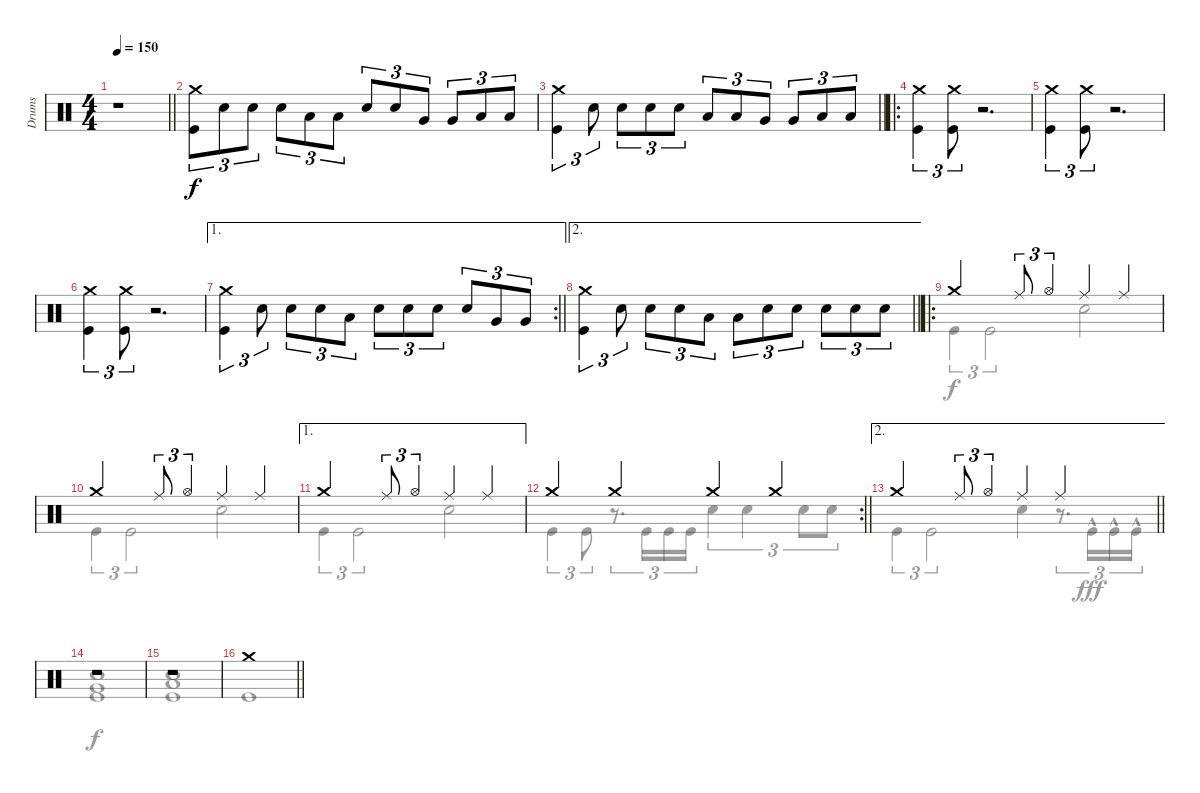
\track ("Drums" "Drums") {instrument percussion}
\staff {score}
\articulation defaults
\voice
\ts (4 4)
\tempo 150
\clef neutral
\barLineRight lightlight
\ks c
r.1{dy f} |
\section ("" "")
("Crash medium (hit)" "Kick (hit)").8{tu (3 2)} "Electric Snare (hit)".8{tu (3 2)} "Electric Snare (hit)".8{tu (3 2)} "Electric Snare (hit)".8{tu (3 2)} "Low Tom (hit)".8{tu (3 2)} "Low Tom (hit)".8{tu (3 2)} "Electric Snare (hit)".8{tu (3 2)} "Electric Snare (hit)".8{tu (3 2)} "Very Low Tom (hit)".8{tu (3 2)} "Very Low Tom (hit)".8{tu (3 2)} "Low Floor Tom (hit)".8{tu (3 2)} "Low Floor Tom (hit)".8{tu (3 2)} |
\barLineRight lightlight
("Crash medium (hit)" "Kick (hit)").4{tu (3 2)} "Electric Snare (hit)".8{tu (3 2)} "Electric Snare (hit)".8{tu (3 2)} "Electric Snare (hit)".8{tu (3 2)} "Electric Snare (hit)".8{tu (3 2)} "Low Tom (hit)".8{tu (3 2)} "Low Tom (hit)".8{tu (3 2)} "Very Low Tom (hit)".8{tu (3 2)} "Very Low Tom (hit)".8{tu (3 2)} "Low Floor Tom (hit)".8{tu (3 2)} "Low Floor Tom (hit)".8{tu (3 2)} |
\ro
\section ("" "")
("Crash medium (hit)" "Kick (hit)").4{tu (3 2)} ("Crash medium (hit)" "Kick (hit)").8{tu (3 2)} r.2{d} |
("Crash medium (hit)" "Kick (hit)").4{tu (3 2)} ("Crash medium (hit)" "Kick (hit)").8{tu (3 2)} r.2{d} |
("Crash medium (hit)" "Kick (hit)").4{tu (3 2)} ("Crash medium (hit)" "Kick (hit)").8{tu (3 2)} r.2{d} |
\ae 1
\rc 2
\barLineRight lightlight
("Crash medium (hit)" "Kick (hit)").4{tu (3 2)} "Electric Snare (hit)".8{tu (3 2)} "Electric Snare (hit)".8{tu (3 2)} "Electric Snare (hit)".8{tu (3 2)} "Low Tom (hit)".8{tu (3 2)} "Electric Snare (hit)".8{tu (3 2)} "Electric Snare (hit)".8{tu (3 2)} "Electric Snare (hit)".8{tu (3 2)} "Electric Snare (hit)".8{tu (3 2)} "Very Low Tom (hit)".8{tu (3 2)} "Very Low Tom (hit)".8{tu (3 2)} |
\ae 2
\barLineRight lightlight
("Crash medium (hit)" "Kick (hit)").4{tu (3 2)} "Electric Snare (hit)".8{tu (3 2)} "Electric Snare (hit)".8{tu (3 2)} "Electric Snare (hit)".8{tu (3 2)} "Low Tom (hit)".8{tu (3 2)} "Low Tom (hit)".8{tu (3 2)} "Electric Snare (hit)".8{tu (3 2)} "Electric Snare (hit)".8{tu (3 2)} "Electric Snare (hit)".8{tu (3 2)} "Electric Snare (hit)".8{tu (3 2)} "Electric Snare (hit)".8{tu (3 2)} |
\ro "Crash medium (hit)".4 "Ride (middle)".8{tu (3 2)} "Hi-Hat (open)".4{tu (3 2)} "Ride (middle)".4 "Ride (middle)".4
|
"Crash medium (hit)".4 "Ride (middle)".8{tu (3 2)} "Hi-Hat (open)".4{tu (3 2)} "Ride (middle)".4 "Ride (middle)".4 |
\ae 1 "Crash medium (hit)".4 "Ride (middle)".8{tu (3 2)} "Hi-Hat (open)".4{tu (3 2)} "Ride (middle)".4 "Ride (middle)".4
|
\rc 2
\barLineRight lightlight "Crash medium (hit)".4 "Crash medium (hit)".4 "Crash medium (hit)".4 "Crash medium (hit)".4
|
\ae 2
\barLineRight lightlight "Crash medium (hit)".4 "Ride (middle)".8{tu (3 2)} "Hi-Hat (open)".4{tu (3 2)} "Ride (middle)".4 "Ride (middle)".4
|
\section ("" "")
r.1 |
r.1 |
\barLineRight lightlight "Crash medium (hit)".1{volume 0}
\voice
\clef neutral
\ottava regular
\simile none
\barLineRight lightlight
\ks c
|
|
\barLineRight lightlight
|
|
|
|
\barLineRight lightlight
|
\barLineRight lightlight
|
"Kick (hit)".4{tu (3 2)} "Kick (hit)".2{tu (3 2)} "Electric Snare (hit)".2 |
"Kick (hit)".4{tu (3 2)} "Kick (hit)".2{tu (3 2)} "Electric Snare (hit)".2 |
"Kick (hit)".4{tu (3 2)} "Kick (hit)".2{tu (3 2)} "Electric Snare (hit)".2 |
\barLineRight lightlight "Kick (hit)".4{tu (3 2)} "Kick (hit)".8{tu (3 2)}
r.8{d tu (3 2)} "Kick (hit)".16{tu (3 2)} "Kick (hit)".16{tu (3 2)} "Kick (hit)".16{tu (3 2)} "Electric Snare (hit)".4{tu (3 2)} "Electric Snare (hit)".4{tu (3 2)} "Electric Snare (hit)".8{tu (3 2)} "Electric Snare (hit)".8{tu (3 2)} |
\barLineRight lightlight "Kick (hit)".4{tu (3 2)} "Kick (hit)".2{tu (3 2)} "Electric Snare (hit)".4
r.8{d tu (3 2)} "Kick (hit)"{hac}.16{tu (3 2) dy fff} "Kick (hit)"{hac}.16{tu (3 2)} "Kick (hit)"{hac}.16{tu (3 2)} |
("Very Low Tom (hit)" "Electric Snare (hit)" "Kick (hit)").1{dy f} |
("Low Tom (hit)" "Electric Snare (hit)" "Kick (hit)").1 |
\barLineRight lightlight "Kick (hit)".1
